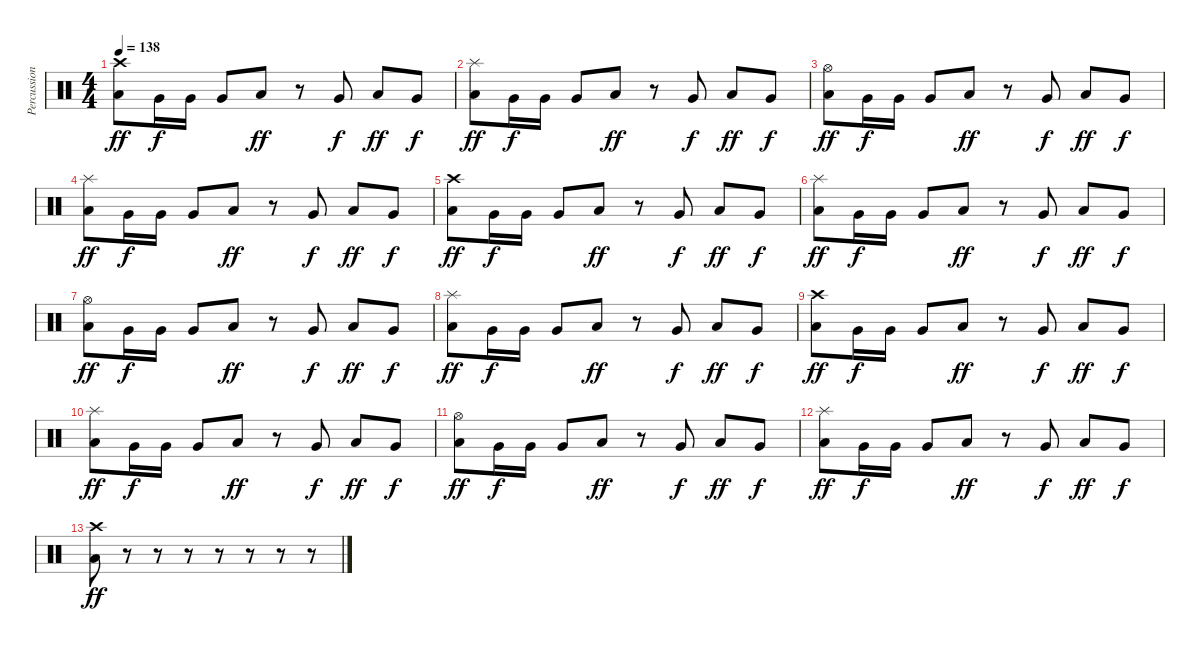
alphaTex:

\track ("Percussion" "Percussion") {instrument percussion}
\staff {score}
\articulation defaults
\ts (4 4)
\tempo 138
\clef neutral
\ks c
("Crash high (hit)" "Low Tom (hit)").8{dy ff} "Very Low Tom (hit)".16{dy f} "Very Low Tom (hit)".16 "Very Low Tom (hit)".8 "Low Tom (hit)".8{dy ff} r.8 "Very Low Tom (hit)".8{dy f} "Low Tom (hit)".8{dy ff} "Very Low Tom (hit)".8{dy f} |
("Splash (hit)" "Low Tom (hit)").8{dy ff} "Very Low Tom (hit)".16{dy f} "Very Low Tom (hit)".16 "Very Low Tom (hit)".8 "Low Tom (hit)".8{dy ff} r.8 "Very Low Tom (hit)".8{dy f} "Low Tom (hit)".8{dy ff} "Very Low Tom (hit)".8{dy f} |
("Hi-Hat (open)" "Low Tom (hit)").8{dy ff} "Very Low Tom (hit)".16{dy f} "Very Low Tom (hit)".16 "Very Low Tom (hit)".8 "Low Tom (hit)".8{dy ff} r.8 "Very Low Tom (hit)".8{dy f} "Low Tom (hit)".8{dy ff} "Very Low Tom (hit)".8{dy f} |
("Splash (hit)" "Low Tom (hit)").8{dy ff} "Very Low Tom (hit)".16{dy f} "Very Low Tom (hit)".16 "Very Low Tom (hit)".8 "Low Tom (hit)".8{dy ff} r.8 "Very Low Tom (hit)".8{dy f} "Low Tom (hit)".8{dy ff} "Very Low Tom (hit)".8{dy f} |
("Crash high (hit)" "Low Tom (hit)").8{dy ff} "Very Low Tom (hit)".16{dy f} "Very Low Tom (hit)".16 "Very Low Tom (hit)".8 "Low Tom (hit)".8{dy ff} r.8 "Very Low Tom (hit)".8{dy f} "Low Tom (hit)".8{dy ff} "Very Low Tom (hit)".8{dy f} |
("Splash (hit)" "Low Tom (hit)").8{dy ff} "Very Low Tom (hit)".16{dy f} "Very Low Tom (hit)".16 "Very Low Tom (hit)".8 "Low Tom (hit)".8{dy ff} r.8 "Very Low Tom (hit)".8{dy f} "Low Tom (hit)".8{dy ff} "Very Low Tom (hit)".8{dy f} |
("Hi-Hat (open)" "Low Tom (hit)").8{dy ff} "Very Low Tom (hit)".16{dy f} "Very Low Tom (hit)".16 "Very Low Tom (hit)".8 "Low Tom (hit)".8{dy ff} r.8 "Very Low Tom (hit)".8{dy f} "Low Tom (hit)".8{dy ff} "Very Low Tom (hit)".8{dy f} |
("Splash (hit)" "Low Tom (hit)").8{dy ff} "Very Low Tom (hit)".16{dy f} "Very Low Tom (hit)".16 "Very Low Tom (hit)".8 "Low Tom (hit)".8{dy ff} r.8 "Very Low Tom (hit)".8{dy f} "Low Tom (hit)".8{dy ff} "Very Low Tom (hit)".8{dy f} |
("Crash high (hit)" "Low Tom (hit)").8{dy ff} "Very Low Tom (hit)".16{dy f} "Very Low Tom (hit)".16 "Very Low Tom (hit)".8 "Low Tom (hit)".8{dy ff} r.8 "Very Low Tom (hit)".8{dy f} "Low Tom (hit)".8{dy ff} "Very Low Tom (hit)".8{dy f} |
("Splash (hit)" "Low Tom (hit)").8{dy ff} "Very Low Tom (hit)".16{dy f} "Very Low Tom (hit)".16 "Very Low Tom (hit)".8 "Low Tom (hit)".8{dy ff} r.8 "Very Low Tom (hit)".8{dy f} "Low Tom (hit)".8{dy ff} "Very Low Tom (hit)".8{dy f} |
("Hi-Hat (open)" "Low Tom (hit)").8{dy ff} "Very Low Tom (hit)".16{dy f} "Very Low Tom (hit)".16 "Very Low Tom (hit)".8 "Low Tom (hit)".8{dy ff} r.8 "Very Low Tom (hit)".8{dy f} "Low Tom (hit)".8{dy ff} "Very Low Tom (hit)".8{dy f} |
("Splash (hit)" "Low Tom (hit)").8{dy ff} "Very Low Tom (hit)".16{dy f} "Very Low Tom (hit)".16 "Very Low Tom (hit)".8 "Low Tom (hit)".8{dy ff} r.8 "Very Low Tom (hit)".8{dy f} "Low Tom (hit)".8{dy ff} "Very Low Tom (hit)".8{dy f} |
("Crash high (hit)" "Low Tom (hit)").8{dy ff} r.8 r.8 r.8 r.8 r.8 r.8 r.8
